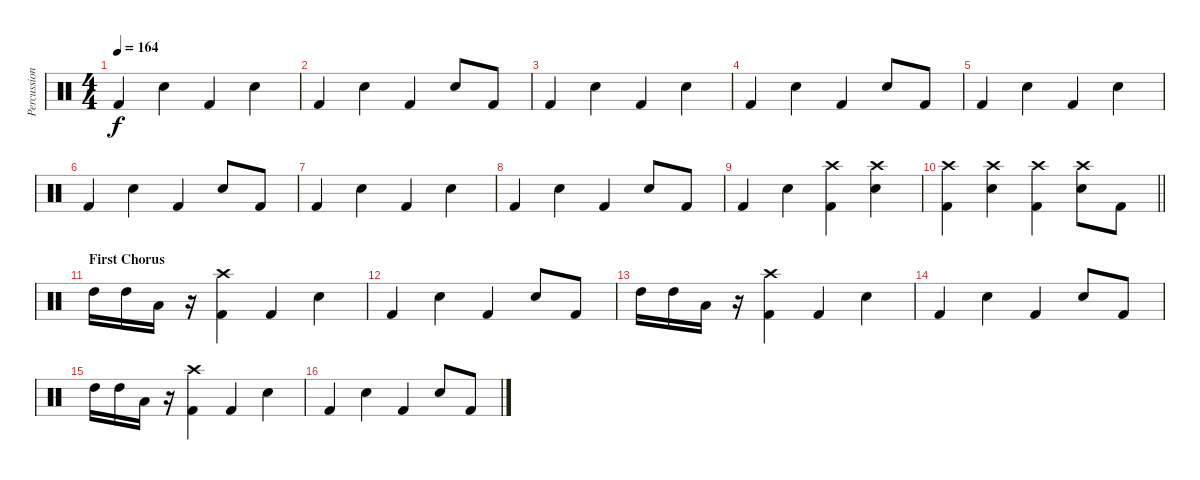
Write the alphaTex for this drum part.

\track ("Percussions" "Percussion") {instrument percussion}
\staff {score}
\articulation defaults
\ts (4 4)
\tempo 164
\clef neutral
\ks c "Kick (hit) 2".4{dy f} "Electric Snare (hit)".4 "Kick (hit) 2".4 "Electric Snare (hit)".4
|
"Kick (hit) 2".4 "Electric Snare (hit)".4 "Kick (hit) 2".4 "Electric Snare (hit)".8 "Kick (hit) 2".8 |
"Kick (hit) 2".4 "Electric Snare (hit)".4 "Kick (hit) 2".4 "Electric Snare (hit)".4 |
"Kick (hit) 2".4 "Electric Snare (hit)".4 "Kick (hit) 2".4 "Electric Snare (hit)".8 "Kick (hit) 2".8 |
"Kick (hit) 2".4 "Electric Snare (hit)".4 "Kick (hit) 2".4 "Electric Snare (hit)".4 |
"Kick (hit) 2".4 "Electric Snare (hit)".4 "Kick (hit) 2".4 "Electric Snare (hit)".8 "Kick (hit) 2".8 |
"Kick (hit) 2".4 "Electric Snare (hit)".4 "Kick (hit) 2".4 "Electric Snare (hit)".4 |
"Kick (hit) 2".4 "Electric Snare (hit)".4 "Kick (hit) 2".4 "Electric Snare (hit)".8 "Kick (hit) 2".8 |
"Kick (hit) 2".4 "Electric Snare (hit)".4 ("Crash high (hit)" "Kick (hit) 2").4 ("Crash high (hit)" "Electric Snare (hit)").4 |
\barLineRight lightlight
("Crash high (hit)" "Kick (hit) 2").4 ("Crash high (hit)" "Electric Snare (hit)").4 ("Crash high (hit)" "Kick (hit) 2").4 ("Crash high (hit)" "Electric Snare (hit)").8 "Kick (hit) 2".8 |
\section ("" "First Chorus")
"High Tom (hit)".16 "High Tom (hit)".16 "Low Tom (hit)".16 r.16 ("Crash high (hit)" "Kick (hit) 2").4 "Kick (hit) 2".4 "Electric Snare (hit)".4 |
"Kick (hit) 2".4 "Electric Snare (hit)".4 "Kick (hit) 2".4 "Electric Snare (hit)".8 "Kick (hit) 2".8 |
"High Tom (hit)".16 "High Tom (hit)".16 "Low Tom (hit)".16 r.16 ("Crash high (hit)" "Kick (hit) 2").4 "Kick (hit) 2".4 "Electric Snare (hit)".4 |
"Kick (hit) 2".4 "Electric Snare (hit)".4 "Kick (hit) 2".4 "Electric Snare (hit)".8 "Kick (hit) 2".8 |
"High Tom (hit)".16 "High Tom (hit)".16 "Low Tom (hit)".16 r.16 ("Crash high (hit)" "Kick (hit) 2").4 "Kick (hit) 2".4 "Electric Snare (hit)".4 |
"Kick (hit) 2".4 "Electric Snare (hit)".4 "Kick (hit) 2".4 "Electric Snare (hit)".8 "Kick (hit) 2".8
